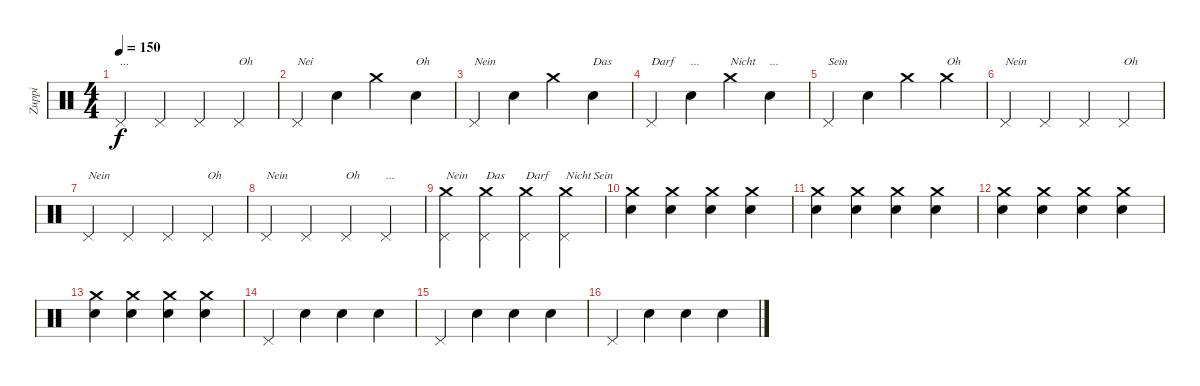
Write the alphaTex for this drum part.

\track ("Zuppi" "Zuppi") {instrument percussion}
\staff {score}
\articulation defaults
\ts (4 4)
\tempo 150
\clef neutral
\ks c "Pedal Hi-Hat (hit)".4{txt "..." dy f} "Pedal Hi-Hat (hit)".4 "Pedal Hi-Hat (hit)".4 "Pedal Hi-Hat (hit)".4{txt "Oh"}
|
"Pedal Hi-Hat (hit)".4{txt "Nei"} "Snare (hit)".4 "Crash medium (hit)".4 "Snare (hit)".4{txt "Oh"} |
"Pedal Hi-Hat (hit)".4{txt "Nein"} "Snare (hit)".4 "Crash medium (hit)".4 "Snare (hit)".4{txt "Das"} |
"Pedal Hi-Hat (hit)".4{txt "Darf"} "Snare (hit)".4{txt "..."} "Crash medium (hit)".4{txt "Nicht"} "Snare (hit)".4{txt "..."} |
"Pedal Hi-Hat (hit)".4{txt "Sein"} "Snare (hit)".4 "Crash medium (hit)".4 "Crash medium (hit)".4{txt "Oh"} |
"Pedal Hi-Hat (hit)".4{txt "Nein"} "Pedal Hi-Hat (hit)".4 "Pedal Hi-Hat (hit)".4 "Pedal Hi-Hat (hit)".4{txt "Oh"} |
"Pedal Hi-Hat (hit)".4{txt "Nein"} "Pedal Hi-Hat (hit)".4 "Pedal Hi-Hat (hit)".4 "Pedal Hi-Hat (hit)".4{txt "Oh"} |
"Pedal Hi-Hat (hit)".4{txt "Nein"} "Pedal Hi-Hat (hit)".4 "Pedal Hi-Hat (hit)".4{txt "Oh"} "Pedal Hi-Hat (hit)".4{txt "..."} |
("Pedal Hi-Hat (hit)" "Crash medium (hit)").4{txt "Nein"} ("Pedal Hi-Hat (hit)" "Crash medium (hit)").4{txt "Das"} ("Pedal Hi-Hat (hit)" "Crash medium (hit)").4{txt "Darf"} ("Pedal Hi-Hat (hit)" "Crash medium (hit)").4{txt "Nicht Sein"} |
("Snare (hit) 2" "Crash medium (hit)").4 ("Snare (hit) 2" "Crash medium (hit)").4 ("Snare (hit) 2" "Crash medium (hit)").4 ("Snare (hit) 2" "Crash medium (hit)").4 |
("Snare (hit) 2" "Crash medium (hit)").4 ("Snare (hit) 2" "Crash medium (hit)").4 ("Snare (hit) 2" "Crash medium (hit)").4 ("Snare (hit) 2" "Crash medium (hit)").4 |
("Snare (hit) 2" "Crash medium (hit)").4 ("Snare (hit) 2" "Crash medium (hit)").4 ("Snare (hit) 2" "Crash medium (hit)").4 ("Snare (hit) 2" "Crash medium (hit)").4 |
("Snare (hit) 2" "Crash medium (hit)").4 ("Snare (hit) 2" "Crash medium (hit)").4 ("Snare (hit) 2" "Crash medium (hit)").4 ("Snare (hit) 2" "Crash medium (hit)").4 |
"Pedal Hi-Hat (hit)".4 "Snare (hit)".4 "Snare (hit)".4 "Snare (hit)".4 |
"Pedal Hi-Hat (hit)".4 "Snare (hit)".4 "Snare (hit)".4 "Snare (hit)".4 |
"Pedal Hi-Hat (hit)".4 "Snare (hit)".4 "Snare (hit)".4 "Snare (hit)".4
